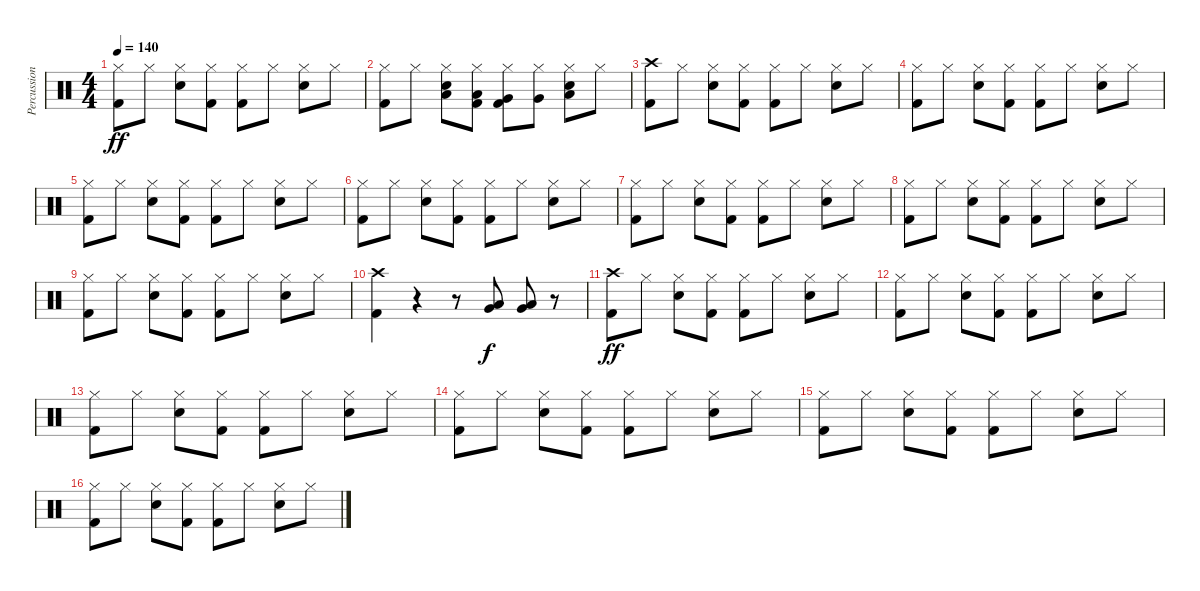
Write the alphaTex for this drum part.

\track ("Percussion" "Percussion") {instrument percussion}
\staff {score}
\articulation defaults
\ts (4 4)
\tempo 140
\clef neutral
\ks c
("Hi-Hat (closed)" "Kick (hit) 2").8{dy ff} "Hi-Hat (closed)".8 ("Hi-Hat (closed)" "Snare (hit) 2").8 ("Hi-Hat (closed)" "Kick (hit) 2").8 ("Hi-Hat (closed)" "Kick (hit) 2").8 "Hi-Hat (closed)".8 ("Hi-Hat (closed)" "Snare (hit) 2").8 "Hi-Hat (closed)".8 |
("Hi-Hat (closed)" "Kick (hit) 2").8 "Hi-Hat (closed)".8 ("Hi-Hat (closed)" "Snare (hit) 2" "Low Tom (hit)").8 ("Hi-Hat (closed)" "Kick (hit) 2" "Low Tom (hit)").8 ("Hi-Hat (closed)" "Kick (hit) 2" "Very Low Tom (hit)").8 ("Hi-Hat (closed)" "Very Low Tom (hit)").8 ("Hi-Hat (closed)" "Snare (hit) 2" "Low Floor Tom (hit)").8 "Hi-Hat (closed)".8 |
("Crash high (hit)" "Kick (hit) 2").8 "Hi-Hat (closed)".8 ("Hi-Hat (closed)" "Snare (hit) 2").8 ("Hi-Hat (closed)" "Kick (hit) 2").8 ("Hi-Hat (closed)" "Kick (hit) 2").8 "Hi-Hat (closed)".8 ("Hi-Hat (closed)" "Snare (hit) 2").8 "Hi-Hat (closed)".8 |
("Hi-Hat (closed)" "Kick (hit) 2").8 "Hi-Hat (closed)".8 ("Hi-Hat (closed)" "Snare (hit) 2").8 ("Hi-Hat (closed)" "Kick (hit) 2").8 ("Hi-Hat (closed)" "Kick (hit) 2").8 "Hi-Hat (closed)".8 ("Hi-Hat (closed)" "Snare (hit) 2").8 "Hi-Hat (closed)".8 |
("Hi-Hat (closed)" "Kick (hit) 2").8 "Hi-Hat (closed)".8 ("Hi-Hat (closed)" "Snare (hit) 2").8 ("Hi-Hat (closed)" "Kick (hit) 2").8 ("Hi-Hat (closed)" "Kick (hit) 2").8 "Hi-Hat (closed)".8 ("Hi-Hat (closed)" "Snare (hit) 2").8 "Hi-Hat (closed)".8 |
("Hi-Hat (closed)" "Kick (hit) 2").8 "Hi-Hat (closed)".8 ("Hi-Hat (closed)" "Snare (hit) 2").8 ("Hi-Hat (closed)" "Kick (hit) 2").8 ("Hi-Hat (closed)" "Kick (hit) 2").8 "Hi-Hat (closed)".8 ("Hi-Hat (closed)" "Snare (hit) 2").8 "Hi-Hat (closed)".8 |
("Hi-Hat (closed)" "Kick (hit) 2").8 "Hi-Hat (closed)".8 ("Hi-Hat (closed)" "Snare (hit) 2").8 ("Hi-Hat (closed)" "Kick (hit) 2").8 ("Hi-Hat (closed)" "Kick (hit) 2").8 "Hi-Hat (closed)".8 ("Hi-Hat (closed)" "Snare (hit) 2").8 "Hi-Hat (closed)".8 |
("Hi-Hat (closed)" "Kick (hit) 2").8 "Hi-Hat (closed)".8 ("Hi-Hat (closed)" "Snare (hit) 2").8 ("Hi-Hat (closed)" "Kick (hit) 2").8 ("Hi-Hat (closed)" "Kick (hit) 2").8 "Hi-Hat (closed)".8 ("Hi-Hat (closed)" "Snare (hit) 2").8 "Hi-Hat (closed)".8 |
("Hi-Hat (closed)" "Kick (hit) 2").8 "Hi-Hat (closed)".8 ("Hi-Hat (closed)" "Snare (hit) 2").8 ("Hi-Hat (closed)" "Kick (hit) 2").8 ("Hi-Hat (closed)" "Kick (hit) 2").8 "Hi-Hat (closed)".8 ("Hi-Hat (closed)" "Snare (hit) 2").8 "Hi-Hat (closed)".8 |
("Crash high (hit)" "Kick (hit) 2").4 r.4 r.8 ("Very Low Tom (hit)" "Low Floor Tom (hit)").8{dy f} ("Very Low Tom (hit)" "Low Floor Tom (hit)").8 r.8 |
("Crash high (hit)" "Kick (hit) 2").8{dy ff} "Hi-Hat (closed)".8 ("Hi-Hat (closed)" "Snare (hit) 2").8 ("Hi-Hat (closed)" "Kick (hit) 2").8 ("Hi-Hat (closed)" "Kick (hit) 2").8 "Hi-Hat (closed)".8 ("Hi-Hat (closed)" "Snare (hit) 2").8 "Hi-Hat (closed)".8 |
("Hi-Hat (closed)" "Kick (hit) 2").8 "Hi-Hat (closed)".8 ("Hi-Hat (closed)" "Snare (hit) 2").8 ("Hi-Hat (closed)" "Kick (hit) 2").8 ("Hi-Hat (closed)" "Kick (hit) 2").8 "Hi-Hat (closed)".8 ("Hi-Hat (closed)" "Snare (hit) 2").8 "Hi-Hat (closed)".8 |
("Hi-Hat (closed)" "Kick (hit) 2").8 "Hi-Hat (closed)".8 ("Hi-Hat (closed)" "Snare (hit) 2").8 ("Hi-Hat (closed)" "Kick (hit) 2").8 ("Hi-Hat (closed)" "Kick (hit) 2").8 "Hi-Hat (closed)".8 ("Hi-Hat (closed)" "Snare (hit) 2").8 "Hi-Hat (closed)".8 |
("Hi-Hat (closed)" "Kick (hit) 2").8 "Hi-Hat (closed)".8 ("Hi-Hat (closed)" "Snare (hit) 2").8 ("Hi-Hat (closed)" "Kick (hit) 2").8 ("Hi-Hat (closed)" "Kick (hit) 2").8 "Hi-Hat (closed)".8 ("Hi-Hat (closed)" "Snare (hit) 2").8 "Hi-Hat (closed)".8 |
("Hi-Hat (closed)" "Kick (hit) 2").8 "Hi-Hat (closed)".8 ("Hi-Hat (closed)" "Snare (hit) 2").8 ("Hi-Hat (closed)" "Kick (hit) 2").8 ("Hi-Hat (closed)" "Kick (hit) 2").8 "Hi-Hat (closed)".8 ("Hi-Hat (closed)" "Snare (hit) 2").8 "Hi-Hat (closed)".8 |
("Hi-Hat (closed)" "Kick (hit) 2").8 "Hi-Hat (closed)".8 ("Hi-Hat (closed)" "Snare (hit) 2").8 ("Hi-Hat (closed)" "Kick (hit) 2").8 ("Hi-Hat (closed)" "Kick (hit) 2").8 "Hi-Hat (closed)".8 ("Hi-Hat (closed)" "Snare (hit) 2").8 "Hi-Hat (closed)".8
